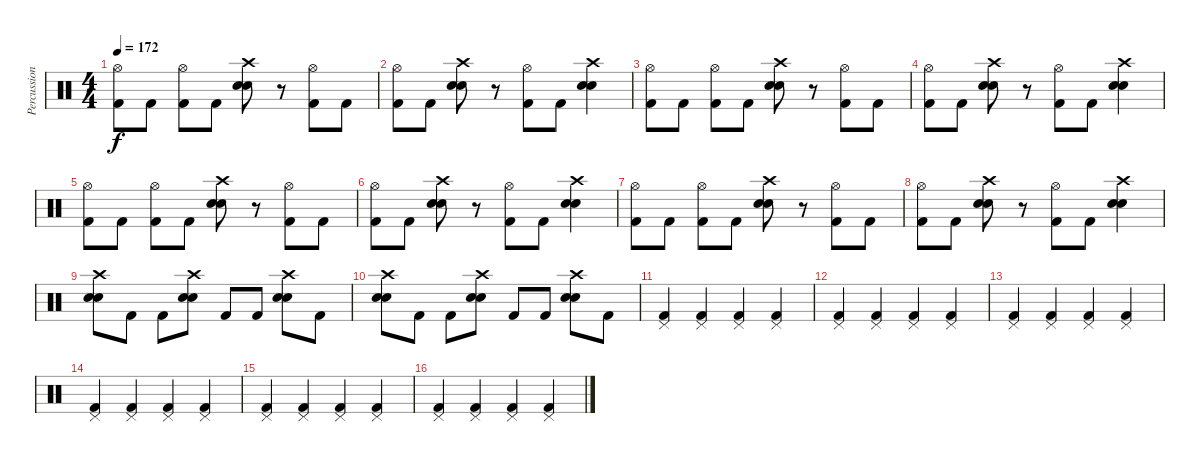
\track ("Percussion" "Percussion") {instrument percussion}
\staff {score}
\articulation defaults
\ts (4 4)
\tempo 172
\clef neutral
\ks c
("Hi-Hat (open)" "Kick (hit) 2").8{dy f} "Kick (hit) 2".8 ("Hi-Hat (open)" "Kick (hit) 2").8 "Kick (hit) 2".8 ("Crash high (hit)" "Snare (hit) 2" "Electric Snare (hit)").8 r.8 ("Hi-Hat (open)" "Kick (hit) 2").8 "Kick (hit) 2".8 |
("Hi-Hat (open)" "Kick (hit) 2").8 "Kick (hit) 2".8 ("Crash high (hit)" "Snare (hit) 2" "Electric Snare (hit)").8 r.8 ("Hi-Hat (open)" "Kick (hit) 2").8 "Kick (hit) 2".8 ("Crash high (hit)" "Snare (hit) 2" "Electric Snare (hit)").4 |
("Hi-Hat (open)" "Kick (hit) 2").8 "Kick (hit) 2".8 ("Hi-Hat (open)" "Kick (hit) 2").8 "Kick (hit) 2".8 ("Crash high (hit)" "Snare (hit) 2" "Electric Snare (hit)").8 r.8 ("Hi-Hat (open)" "Kick (hit) 2").8 "Kick (hit) 2".8 |
("Hi-Hat (open)" "Kick (hit) 2").8 "Kick (hit) 2".8 ("Crash high (hit)" "Snare (hit) 2" "Electric Snare (hit)").8 r.8 ("Hi-Hat (open)" "Kick (hit) 2").8 "Kick (hit) 2".8 ("Crash high (hit)" "Snare (hit) 2" "Electric Snare (hit)").4 |
("Hi-Hat (open)" "Kick (hit) 2").8 "Kick (hit) 2".8 ("Hi-Hat (open)" "Kick (hit) 2").8 "Kick (hit) 2".8 ("Crash high (hit)" "Snare (hit) 2" "Electric Snare (hit)").8 r.8 ("Hi-Hat (open)" "Kick (hit) 2").8 "Kick (hit) 2".8 |
("Hi-Hat (open)" "Kick (hit) 2").8 "Kick (hit) 2".8 ("Crash high (hit)" "Snare (hit) 2" "Electric Snare (hit)").8 r.8 ("Hi-Hat (open)" "Kick (hit) 2").8 "Kick (hit) 2".8 ("Crash high (hit)" "Snare (hit) 2" "Electric Snare (hit)").4 |
("Hi-Hat (open)" "Kick (hit) 2").8 "Kick (hit) 2".8 ("Hi-Hat (open)" "Kick (hit) 2").8 "Kick (hit) 2".8 ("Crash high (hit)" "Snare (hit) 2" "Electric Snare (hit)").8 r.8 ("Hi-Hat (open)" "Kick (hit) 2").8 "Kick (hit) 2".8 |
("Hi-Hat (open)" "Kick (hit) 2").8 "Kick (hit) 2".8 ("Crash high (hit)" "Snare (hit) 2" "Electric Snare (hit)").8 r.8 ("Hi-Hat (open)" "Kick (hit) 2").8 "Kick (hit) 2".8 ("Crash high (hit)" "Snare (hit) 2" "Electric Snare (hit)").4 |
("Crash high (hit)" "Snare (hit) 2" "Electric Snare (hit)").8 "Kick (hit) 2".8 "Kick (hit) 2".8 ("Crash high (hit)" "Snare (hit) 2" "Electric Snare (hit)").8 "Kick (hit) 2".8 "Kick (hit) 2".8 ("Crash high (hit)" "Snare (hit) 2" "Electric Snare (hit)").8 "Kick (hit) 2".8 |
("Crash high (hit)" "Snare (hit) 2" "Electric Snare (hit)").8 "Kick (hit) 2".8 "Kick (hit) 2".8 ("Crash high (hit)" "Snare (hit) 2" "Electric Snare (hit)").8 "Kick (hit) 2".8 "Kick (hit) 2".8 ("Crash high (hit)" "Snare (hit) 2" "Electric Snare (hit)").8 "Kick (hit) 2".8 |
("Pedal Hi-Hat (hit)" "Kick (hit) 2").4 ("Pedal Hi-Hat (hit)" "Kick (hit) 2").4 ("Pedal Hi-Hat (hit)" "Kick (hit) 2").4 ("Pedal Hi-Hat (hit)" "Kick (hit) 2").4 |
("Pedal Hi-Hat (hit)" "Kick (hit) 2").4 ("Pedal Hi-Hat (hit)" "Kick (hit) 2").4 ("Pedal Hi-Hat (hit)" "Kick (hit) 2").4 ("Pedal Hi-Hat (hit)" "Kick (hit) 2").4 |
("Pedal Hi-Hat (hit)" "Kick (hit) 2").4 ("Pedal Hi-Hat (hit)" "Kick (hit) 2").4 ("Pedal Hi-Hat (hit)" "Kick (hit) 2").4 ("Pedal Hi-Hat (hit)" "Kick (hit) 2").4 |
("Pedal Hi-Hat (hit)" "Kick (hit) 2").4 ("Pedal Hi-Hat (hit)" "Kick (hit) 2").4 ("Pedal Hi-Hat (hit)" "Kick (hit) 2").4 ("Pedal Hi-Hat (hit)" "Kick (hit) 2").4 |
("Pedal Hi-Hat (hit)" "Kick (hit) 2").4 ("Pedal Hi-Hat (hit)" "Kick (hit) 2").4 ("Pedal Hi-Hat (hit)" "Kick (hit) 2").4 ("Pedal Hi-Hat (hit)" "Kick (hit) 2").4 |
("Pedal Hi-Hat (hit)" "Kick (hit) 2").4 ("Pedal Hi-Hat (hit)" "Kick (hit) 2").4 ("Pedal Hi-Hat (hit)" "Kick (hit) 2").4 ("Pedal Hi-Hat (hit)" "Kick (hit) 2").4
